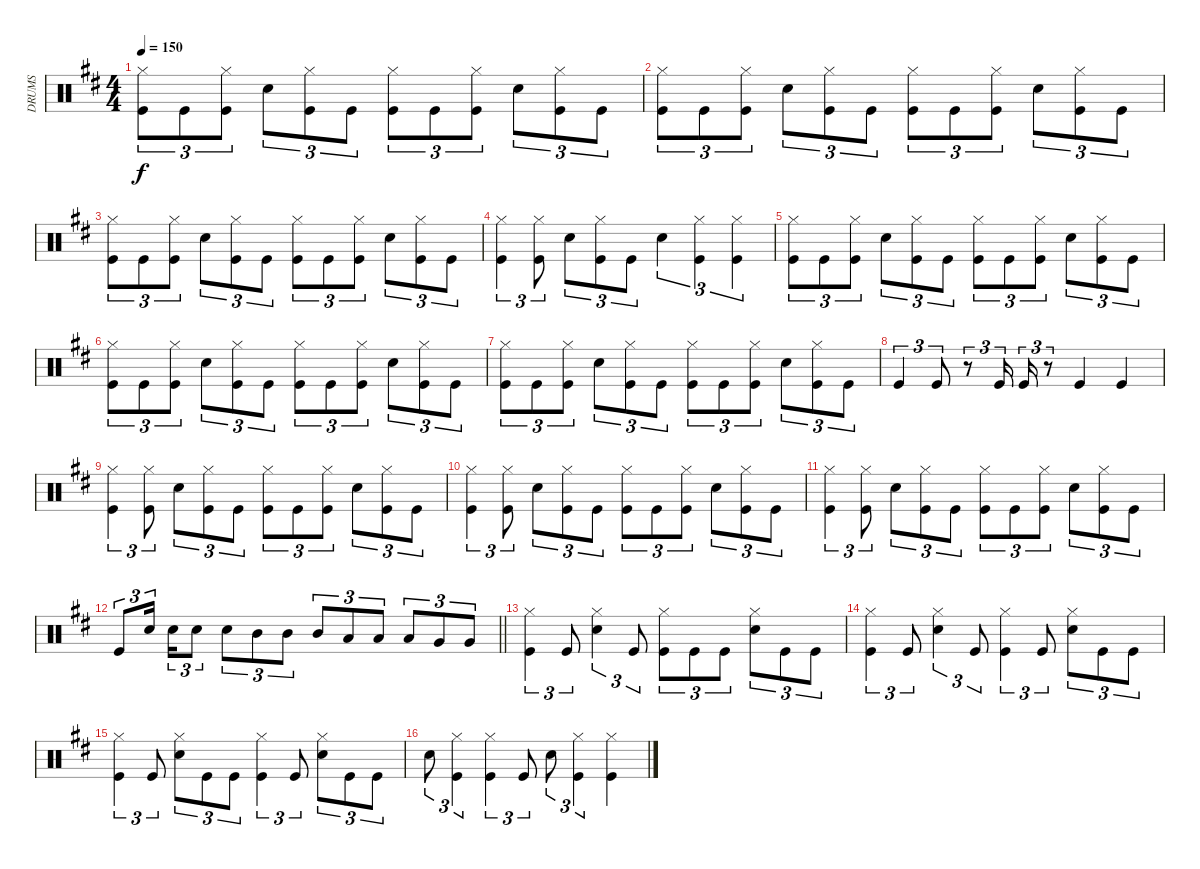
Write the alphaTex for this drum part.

\track ("DRUMS" "DRUMS") {instrument percussion}
\staff {score}
\articulation defaults
\ts (4 4)
\tempo 150
\clef neutral
\ks d
("Hi-Hat (closed)" "Kick (hit)").8{tu (3 2) dy f} "Kick (hit)".8{tu (3 2)} ("Hi-Hat (closed)" "Kick (hit)").8{tu (3 2)} "Snare (hit) 2".8{tu (3 2)} ("Hi-Hat (closed)" "Kick (hit)").8{tu (3 2)} "Kick (hit)".8{tu (3 2)} ("Hi-Hat (closed)" "Kick (hit)").8{tu (3 2)} "Kick (hit)".8{tu (3 2)} ("Hi-Hat (closed)" "Kick (hit)").8{tu (3 2)} "Snare (hit) 2".8{tu (3 2)} ("Hi-Hat (closed)" "Kick (hit)").8{tu (3 2)} "Kick (hit)".8{tu (3 2)} |
("Hi-Hat (closed)" "Kick (hit)").8{tu (3 2)} "Kick (hit)".8{tu (3 2)} ("Hi-Hat (closed)" "Kick (hit)").8{tu (3 2)} "Snare (hit) 2".8{tu (3 2)} ("Hi-Hat (closed)" "Kick (hit)").8{tu (3 2)} "Kick (hit)".8{tu (3 2)} ("Hi-Hat (closed)" "Kick (hit)").8{tu (3 2)} "Kick (hit)".8{tu (3 2)} ("Hi-Hat (closed)" "Kick (hit)").8{tu (3 2)} "Snare (hit) 2".8{tu (3 2)} ("Hi-Hat (closed)" "Kick (hit)").8{tu (3 2)} "Kick (hit)".8{tu (3 2)} |
("Hi-Hat (closed)" "Kick (hit)").8{tu (3 2)} "Kick (hit)".8{tu (3 2)} ("Hi-Hat (closed)" "Kick (hit)").8{tu (3 2)} "Snare (hit) 2".8{tu (3 2)} ("Hi-Hat (closed)" "Kick (hit)").8{tu (3 2)} "Kick (hit)".8{tu (3 2)} ("Hi-Hat (closed)" "Kick (hit)").8{tu (3 2)} "Kick (hit)".8{tu (3 2)} ("Hi-Hat (closed)" "Kick (hit)").8{tu (3 2)} "Snare (hit) 2".8{tu (3 2)} ("Hi-Hat (closed)" "Kick (hit)").8{tu (3 2)} "Kick (hit)".8{tu (3 2)} |
("Hi-Hat (closed)" "Kick (hit)").4{tu (3 2)} ("Hi-Hat (closed)" "Kick (hit)").8{tu (3 2)} "Snare (hit) 2".8{tu (3 2)} ("Hi-Hat (closed)" "Kick (hit)").8{tu (3 2)} "Kick (hit)".8{tu (3 2)} "Snare (hit) 2".4{tu (3 2)} ("Hi-Hat (closed)" "Kick (hit)").4{tu (3 2)} ("Hi-Hat (closed)" "Kick (hit)").4{tu (3 2)} |
("Hi-Hat (closed)" "Kick (hit)").8{tu (3 2)} "Kick (hit)".8{tu (3 2)} ("Hi-Hat (closed)" "Kick (hit)").8{tu (3 2)} "Snare (hit) 2".8{tu (3 2)} ("Hi-Hat (closed)" "Kick (hit)").8{tu (3 2)} "Kick (hit)".8{tu (3 2)} ("Hi-Hat (closed)" "Kick (hit)").8{tu (3 2)} "Kick (hit)".8{tu (3 2)} ("Hi-Hat (closed)" "Kick (hit)").8{tu (3 2)} "Snare (hit) 2".8{tu (3 2)} ("Hi-Hat (closed)" "Kick (hit)").8{tu (3 2)} "Kick (hit)".8{tu (3 2)} |
("Hi-Hat (closed)" "Kick (hit)").8{tu (3 2)} "Kick (hit)".8{tu (3 2)} ("Hi-Hat (closed)" "Kick (hit)").8{tu (3 2)} "Snare (hit) 2".8{tu (3 2)} ("Hi-Hat (closed)" "Kick (hit)").8{tu (3 2)} "Kick (hit)".8{tu (3 2)} ("Hi-Hat (closed)" "Kick (hit)").8{tu (3 2)} "Kick (hit)".8{tu (3 2)} ("Hi-Hat (closed)" "Kick (hit)").8{tu (3 2)} "Snare (hit) 2".8{tu (3 2)} ("Hi-Hat (closed)" "Kick (hit)").8{tu (3 2)} "Kick (hit)".8{tu (3 2)} |
("Hi-Hat (closed)" "Kick (hit)").8{tu (3 2)} "Kick (hit)".8{tu (3 2)} ("Hi-Hat (closed)" "Kick (hit)").8{tu (3 2)} "Snare (hit) 2".8{tu (3 2)} ("Hi-Hat (closed)" "Kick (hit)").8{tu (3 2)} "Kick (hit)".8{tu (3 2)} ("Hi-Hat (closed)" "Kick (hit)").8{tu (3 2)} "Kick (hit)".8{tu (3 2)} ("Hi-Hat (closed)" "Kick (hit)").8{tu (3 2)} "Snare (hit) 2".8{tu (3 2)} ("Hi-Hat (closed)" "Kick (hit)").8{tu (3 2)} "Kick (hit)".8{tu (3 2)} |
"Kick (hit)".4{tu (3 2)} "Kick (hit)".8{tu (3 2)} r.8{tu (3 2)} "Kick (hit)".16{tu (3 2)} "Kick (hit)".16{tu (3 2)} r.8{tu (3 2)} "Kick (hit)".4 "Kick (hit)".4 |
("Hi-Hat (closed)" "Kick (hit)").4{tu (3 2)} ("Hi-Hat (closed)" "Kick (hit)").8{tu (3 2)} "Snare (hit) 2".8{tu (3 2)} ("Hi-Hat (closed)" "Kick (hit)").8{tu (3 2)} "Kick (hit)".8{tu (3 2)} ("Hi-Hat (closed)" "Kick (hit)").8{tu (3 2)} "Kick (hit)".8{tu (3 2)} ("Hi-Hat (closed)" "Kick (hit)").8{tu (3 2)} "Snare (hit) 2".8{tu (3 2)} ("Hi-Hat (closed)" "Kick (hit)").8{tu (3 2)} "Kick (hit)".8{tu (3 2)} |
("Hi-Hat (closed)" "Kick (hit)").4{tu (3 2)} ("Hi-Hat (closed)" "Kick (hit)").8{tu (3 2)} "Snare (hit) 2".8{tu (3 2)} ("Hi-Hat (closed)" "Kick (hit)").8{tu (3 2)} "Kick (hit)".8{tu (3 2)} ("Hi-Hat (closed)" "Kick (hit)").8{tu (3 2)} "Kick (hit)".8{tu (3 2)} ("Hi-Hat (closed)" "Kick (hit)").8{tu (3 2)} "Snare (hit) 2".8{tu (3 2)} ("Hi-Hat (closed)" "Kick (hit)").8{tu (3 2)} "Kick (hit)".8{tu (3 2)} |
("Hi-Hat (closed)" "Kick (hit)").4{tu (3 2)} ("Hi-Hat (closed)" "Kick (hit)").8{tu (3 2)} "Snare (hit) 2".8{tu (3 2)} ("Hi-Hat (closed)" "Kick (hit)").8{tu (3 2)} "Kick (hit)".8{tu (3 2)} ("Hi-Hat (closed)" "Kick (hit)").8{tu (3 2)} "Kick (hit)".8{tu (3 2)} ("Hi-Hat (closed)" "Kick (hit)").8{tu (3 2)} "Snare (hit) 2".8{tu (3 2)} ("Hi-Hat (closed)" "Kick (hit)").8{tu (3 2)} "Kick (hit)".8{tu (3 2)} |
\barLineRight lightlight "Kick (hit)".8{tu (3 2)} "Snare (hit) 2".16{tu (3 2) beam splitsecondary} "Snare (hit) 2".16{tu (3 2)} "Snare (hit) 2".8{tu (3 2)} "Snare (hit) 2".8{tu (3 2)} "Mid Tom (hit)".8{tu (3 2)} "Mid Tom (hit)".8{tu (3 2)} "Mid Tom (hit)".8{tu (3 2)} "Low Tom (hit)".8{tu (3 2)} "Low Tom (hit)".8{tu (3 2)} "Low Tom (hit)".8{tu (3 2)} "Very Low Tom (hit)".8{tu (3 2)} "Very Low Tom (hit)".8{tu (3 2)}
|
("Hi-Hat (closed)" "Kick (hit)").4{tu (3 2)} "Kick (hit)".8{tu (3 2)} ("Hi-Hat (closed)" "Snare (hit) 2").4{tu (3 2)} "Kick (hit)".8{tu (3 2)} ("Hi-Hat (closed)" "Kick (hit)").8{tu (3 2)} "Kick (hit)".8{tu (3 2)} "Kick (hit)".8{tu (3 2)} ("Hi-Hat (closed)" "Snare (hit) 2").8{tu (3 2)} "Kick (hit)".8{tu (3 2)} "Kick (hit)".8{tu (3 2)} |
("Hi-Hat (closed)" "Kick (hit)").4{tu (3 2)} "Kick (hit)".8{tu (3 2)} ("Hi-Hat (closed)" "Snare (hit) 2").4{tu (3 2)} "Kick (hit)".8{tu (3 2)} ("Hi-Hat (closed)" "Kick (hit)").4{tu (3 2)} "Kick (hit)".8{tu (3 2)} ("Hi-Hat (closed)" "Snare (hit) 2").8{tu (3 2)} "Kick (hit)".8{tu (3 2)} "Kick (hit)".8{tu (3 2)} |
("Hi-Hat (closed)" "Kick (hit)").4{tu (3 2)} "Kick (hit)".8{tu (3 2)} ("Hi-Hat (closed)" "Snare (hit) 2").8{tu (3 2)} "Kick (hit)".8{tu (3 2)} "Kick (hit)".8{tu (3 2)} ("Hi-Hat (closed)" "Kick (hit)").4{tu (3 2)} "Kick (hit)".8{tu (3 2)} ("Hi-Hat (closed)" "Snare (hit) 2").8{tu (3 2)} "Kick (hit)".8{tu (3 2)} "Kick (hit)".8{tu (3 2)} |
"Snare (hit) 2".8{tu (3 2)} ("Hi-Hat (closed)" "Kick (hit)").4{tu (3 2)} ("Hi-Hat (closed)" "Kick (hit)").4{tu (3 2)} "Kick (hit)".8{tu (3 2)} "Snare (hit) 2".8{tu (3 2)} ("Hi-Hat (closed)" "Kick (hit)").4{tu (3 2)} ("Hi-Hat (closed)" "Kick (hit)").4
